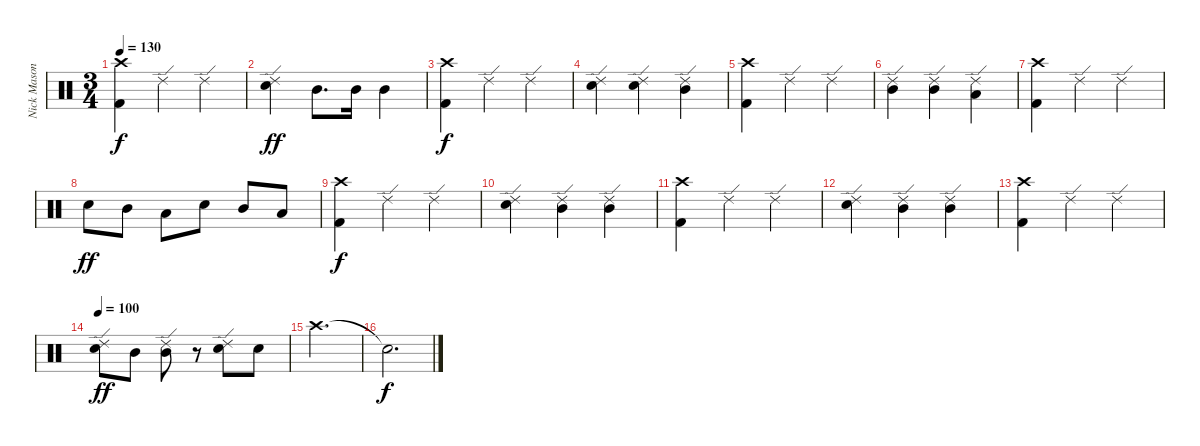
\track ("Nick Mason" "Nick Mason") {instrument percussion}
\staff {score}
\articulation defaults
\ts (3 4)
\tempo 130
\clef neutral
\ks c
("Crash high (hit)" "Kick (hit) 2").4{dy f} "Ride (edge) 2".4 "Ride (edge) 2".4 |
("Ride (edge) 2" "Snare (hit) 2").4{dy ff} "Mid Tom (hit)".8{d} "Mid Tom (hit)".16 "Mid Tom (hit)".4 |
("Crash high (hit)" "Kick (hit) 2").4{dy f} "Ride (edge) 2".4 "Ride (edge) 2".4 |
("Ride (edge) 2" "Snare (hit) 2").4 ("Ride (edge) 2" "Snare (hit) 2").4 ("Ride (edge) 2" "Mid Tom (hit)").4 |
("Crash high (hit)" "Kick (hit) 2").4 "Ride (edge) 2".4 "Ride (edge) 2".4 |
("Ride (edge) 2" "Mid Tom (hit)").4 ("Ride (edge) 2" "Mid Tom (hit)").4 ("Ride (edge) 2" "Low Tom (hit)").4 |
("Crash high (hit)" "Kick (hit) 2").4 "Ride (edge) 2".4 "Ride (edge) 2".4 |
"Snare (hit) 2".8{dy ff} "Mid Tom (hit)".8 "Low Tom (hit)".8 "Snare (hit) 2".8 "Mid Tom (hit)".8 "Low Tom (hit)".8 |
("Crash high (hit)" "Kick (hit) 2").4{dy f} "Ride (edge) 2".4 "Ride (edge) 2".4 |
("Ride (edge) 2" "Snare (hit) 2").4 ("Ride (edge) 2" "Mid Tom (hit)").4 ("Ride (edge) 2" "Mid Tom (hit)").4 |
("Crash high (hit)" "Kick (hit) 2").4 "Ride (edge) 2".4 "Ride (edge) 2".4 |
("Ride (edge) 2" "Snare (hit) 2").4 ("Ride (edge) 2" "Mid Tom (hit)").4 ("Ride (edge) 2" "Mid Tom (hit)").4 |
("Crash high (hit)" "Kick (hit) 2").4 "Ride (edge) 2".4 "Ride (edge) 2".4 |
\tempo 100
("Snare (hit) 2" "Ride (edge) 2").8{dy ff} "Mid Tom (hit)".8 ("Mid Tom (hit)" "Ride (edge) 2").8 r.8 ("Snare (hit) 2" "Ride (edge) 2").8 "Snare (hit) 2".8 |
"Crash high (hit)".2{d} |
"Snare (hit)"{t}.2{d dy f}
